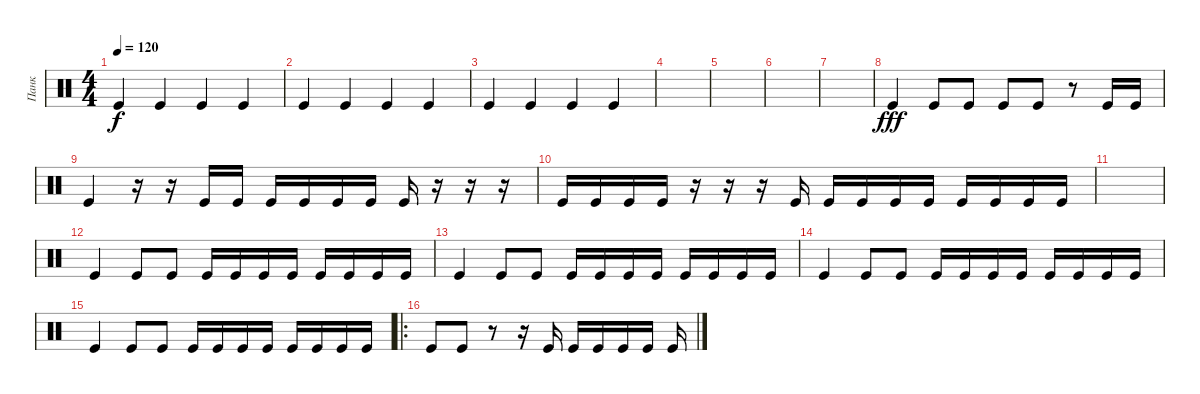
\track ("Панк" "Панк") {instrument percussion}
\staff {score}
\articulation defaults
\ts (4 4)
\tempo 120
\clef neutral
\ks c "Kick (hit)".4{dy f} "Kick (hit)".4 "Kick (hit)".4 "Kick (hit)".4
|
"Kick (hit)".4 "Kick (hit)".4 "Kick (hit)".4 "Kick (hit)".4 |
"Kick (hit)".4 "Kick (hit)".4 "Kick (hit)".4 "Kick (hit)".4 |
|
|
|
|
"Kick (hit)".4{dy fff} "Kick (hit)".8 "Kick (hit)".8 "Kick (hit)".8 "Kick (hit)".8 r.8 "Kick (hit)".16 "Kick (hit)".16 |
"Kick (hit)".4 r.16 r.16 "Kick (hit)".16 "Kick (hit)".16 "Kick (hit)".16 "Kick (hit)".16 "Kick (hit)".16 "Kick (hit)".16 "Kick (hit)".16 r.16 r.16 r.16 |
"Kick (hit)".16 "Kick (hit)".16 "Kick (hit)".16 "Kick (hit)".16 r.16 r.16 r.16 "Kick (hit)".16 "Kick (hit)".16 "Kick (hit)".16 "Kick (hit)".16 "Kick (hit)".16 "Kick (hit)".16 "Kick (hit)".16 "Kick (hit)".16 "Kick (hit)".16 |
|
"Kick (hit)".4 "Kick (hit)".8 "Kick (hit)".8 "Kick (hit)".16 "Kick (hit)".16 "Kick (hit)".16 "Kick (hit)".16 "Kick (hit)".16 "Kick (hit)".16 "Kick (hit)".16 "Kick (hit)".16 |
"Kick (hit)".4 "Kick (hit)".8 "Kick (hit)".8 "Kick (hit)".16 "Kick (hit)".16 "Kick (hit)".16 "Kick (hit)".16 "Kick (hit)".16 "Kick (hit)".16 "Kick (hit)".16 "Kick (hit)".16 |
"Kick (hit)".4 "Kick (hit)".8 "Kick (hit)".8 "Kick (hit)".16 "Kick (hit)".16 "Kick (hit)".16 "Kick (hit)".16 "Kick (hit)".16 "Kick (hit)".16 "Kick (hit)".16 "Kick (hit)".16 |
"Kick (hit)".4 "Kick (hit)".8 "Kick (hit)".8 "Kick (hit)".16 "Kick (hit)".16 "Kick (hit)".16 "Kick (hit)".16 "Kick (hit)".16 "Kick (hit)".16 "Kick (hit)".16 "Kick (hit)".16 |
\ro "Kick (hit)".8 "Kick (hit)".8
r.8 r.16 "Kick (hit)".16 "Kick (hit)".16 "Kick (hit)".16 "Kick (hit)".16 "Kick (hit)".16 "Kick (hit)".16
